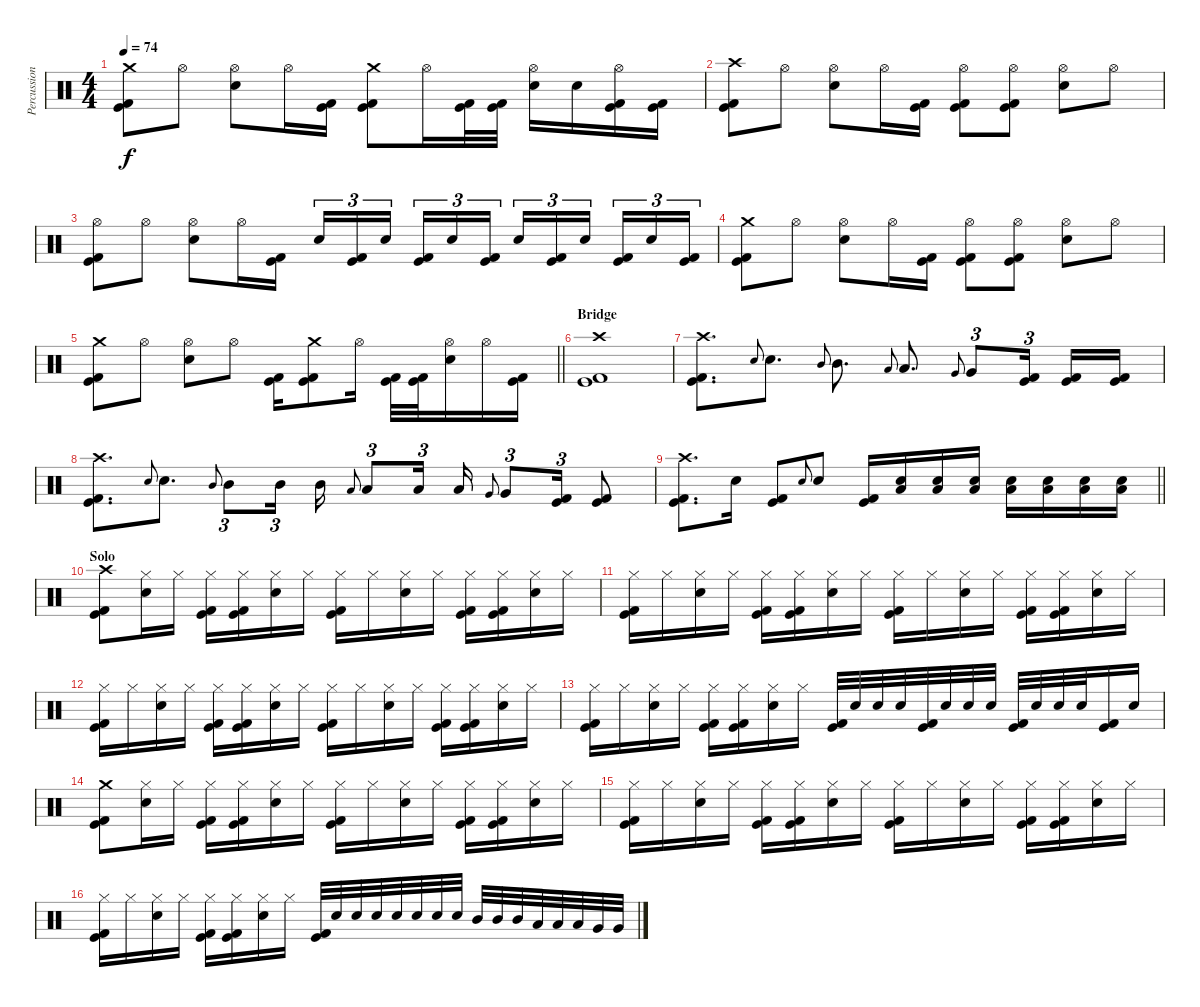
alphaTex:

\track ("Percussion" "Percussion") {instrument percussion}
\staff {score}
\articulation defaults
\ts (4 4)
\tempo 74
\clef neutral
\ks c
("Crash medium (hit)" "Kick (hit)" "Kick (hit) 2").8{dy f} "Hi-Hat (open)".8 ("Hi-Hat (open)" "Electric Snare (hit)").8 "Hi-Hat (open)".16 ("Kick (hit)" "Kick (hit) 2").16 ("Crash medium (hit)" "Kick (hit)" "Kick (hit) 2").8 "Hi-Hat (open)".16 ("Kick (hit)" "Kick (hit) 2").32 ("Kick (hit)" "Kick (hit) 2").32 ("Hi-Hat (open)" "Electric Snare (hit)").16 "Electric Snare (hit)".16 ("Hi-Hat (open)" "Kick (hit)" "Kick (hit) 2").16 ("Kick (hit)" "Kick (hit) 2").16 |
("Crash high (hit)" "Kick (hit)" "Kick (hit) 2").8 "Hi-Hat (open)".8 ("Hi-Hat (open)" "Electric Snare (hit)").8 "Hi-Hat (open)".16 ("Kick (hit)" "Kick (hit) 2").16 ("Hi-Hat (open)" "Kick (hit)" "Kick (hit) 2").8 ("Hi-Hat (open)" "Kick (hit)" "Kick (hit) 2").8 ("Hi-Hat (open)" "Electric Snare (hit)").8 "Hi-Hat (open)".8 |
("Hi-Hat (open)" "Kick (hit)" "Kick (hit) 2").8 "Hi-Hat (open)".8 ("Hi-Hat (open)" "Electric Snare (hit)").8 "Hi-Hat (open)".16 ("Kick (hit)" "Kick (hit) 2").16 "Electric Snare (hit)".16{tu (3 2)} ("Kick (hit)" "Kick (hit) 2").16{tu (3 2)} "Electric Snare (hit)".16{tu (3 2) beam splitsecondary} ("Kick (hit)" "Kick (hit) 2").16{tu (3 2)} "Electric Snare (hit)".16{tu (3 2)} ("Kick (hit)" "Kick (hit) 2").16{tu (3 2)} "Electric Snare (hit)".16{tu (3 2)} ("Kick (hit)" "Kick (hit) 2").16{tu (3 2)} "Electric Snare (hit)".16{tu (3 2) beam splitsecondary} ("Kick (hit)" "Kick (hit) 2").16{tu (3 2)} "Electric Snare (hit)".16{tu (3 2)} ("Kick (hit)" "Kick (hit) 2").16{tu (3 2)} |
("Crash medium (hit)" "Kick (hit)" "Kick (hit) 2").8 "Hi-Hat (open)".8 ("Hi-Hat (open)" "Electric Snare (hit)").8 "Hi-Hat (open)".16 ("Kick (hit)" "Kick (hit) 2").16 ("Hi-Hat (open)" "Kick (hit)" "Kick (hit) 2").8 ("Hi-Hat (open)" "Kick (hit)" "Kick (hit) 2").8 ("Hi-Hat (open)" "Electric Snare (hit)").8 "Hi-Hat (open)".8 |
\barLineRight lightlight
("Crash medium (hit)" "Kick (hit)" "Kick (hit) 2").8 "Hi-Hat (open)".8 ("Hi-Hat (open)" "Electric Snare (hit)").8 "Hi-Hat (open)".8 ("Kick (hit)" "Kick (hit) 2").16 ("Crash medium (hit)" "Kick (hit)" "Kick (hit) 2").8 "Hi-Hat (open)".16 ("Kick (hit)" "Kick (hit) 2").32 ("Kick (hit)" "Kick (hit) 2").32 ("Hi-Hat (open)" "Electric Snare (hit)").16 "Hi-Hat (open)".16 ("Kick (hit)" "Kick (hit) 2").16 |
\section ("" "Bridge")
("Crash high (hit)" "Kick (hit)" "Kick (hit) 2").1 |
("Crash high (hit)" "Kick (hit)" "Kick (hit) 2").8{d} "Electric Snare (hit)".8{gr onbeat} "Electric Snare (hit)".8{d} "Mid Tom (hit)".8{gr onbeat} "Mid Tom (hit)".8{d} "Low Tom (hit)".8{gr onbeat} "Low Tom (hit)".8{d} "Very Low Tom (hit)".8{gr onbeat} "Very Low Tom (hit)".8{tu (3 2)} ("Kick (hit)" "Kick (hit) 2").16{tu (3 2) beam splitsecondary} ("Kick (hit)" "Kick (hit) 2").16 ("Kick (hit)" "Kick (hit) 2").16 |
("Crash high (hit)" "Kick (hit)" "Kick (hit) 2").8{d} "Electric Snare (hit)".8{gr onbeat} "Electric Snare (hit)".8{d} "Mid Tom (hit)".8{gr onbeat} "Mid Tom (hit)".8{tu (3 2)} "Mid Tom (hit)".16{tu (3 2)} "Mid Tom (hit)".16 "Low Tom (hit)".8{gr onbeat} "Low Tom (hit)".8{tu (3 2)} "Low Tom (hit)".16{tu (3 2)} "Low Tom (hit)".16 "Very Low Tom (hit)".8{gr onbeat} "Very Low Tom (hit)".8{tu (3 2)} ("Kick (hit)" "Kick (hit) 2").16{tu (3 2)} ("Kick (hit)" "Kick (hit) 2").8 |
\barLineRight lightlight
("Crash high (hit)" "Kick (hit)" "Kick (hit) 2").8{d} "Electric Snare (hit)".16 ("Kick (hit)" "Kick (hit) 2").8 "Electric Snare (hit)".8{gr onbeat} "Electric Snare (hit)".8 ("Kick (hit)" "Kick (hit) 2").16 ("Electric Snare (hit)" "Low Floor Tom (hit)").16 ("Electric Snare (hit)" "Low Floor Tom (hit)").16 ("Electric Snare (hit)" "Low Floor Tom (hit)").16 ("Electric Snare (hit)" "Low Floor Tom (hit)").16 ("Electric Snare (hit)" "Low Floor Tom (hit)").16 ("Electric Snare (hit)" "Low Floor Tom (hit)").16 ("Electric Snare (hit)" "Low Floor Tom (hit)").16 |
\section ("" "Solo")
("Crash high (hit)" "Kick (hit)" "Kick (hit) 2").8 ("Hi-Hat (closed)" "Electric Snare (hit)").16 "Hi-Hat (closed)".16 ("Hi-Hat (closed)" "Kick (hit)" "Kick (hit) 2").16 ("Hi-Hat (closed)" "Kick (hit)" "Kick (hit) 2").16 ("Hi-Hat (closed)" "Electric Snare (hit)").16 "Hi-Hat (closed)".16 ("Hi-Hat (closed)" "Kick (hit)" "Kick (hit) 2").16 "Hi-Hat (closed)".16 ("Hi-Hat (closed)" "Electric Snare (hit)").16 "Hi-Hat (closed)".16 ("Hi-Hat (closed)" "Kick (hit)" "Kick (hit) 2").16 ("Hi-Hat (closed)" "Kick (hit)" "Kick (hit) 2").16 ("Hi-Hat (closed)" "Electric Snare (hit)").16 "Hi-Hat (closed)".16 |
("Hi-Hat (closed)" "Kick (hit)" "Kick (hit) 2").16 "Hi-Hat (closed)".16 ("Hi-Hat (closed)" "Electric Snare (hit)").16 "Hi-Hat (closed)".16 ("Hi-Hat (closed)" "Kick (hit)" "Kick (hit) 2").16 ("Hi-Hat (closed)" "Kick (hit)" "Kick (hit) 2").16 ("Hi-Hat (closed)" "Electric Snare (hit)").16 "Hi-Hat (closed)".16 ("Hi-Hat (closed)" "Kick (hit)" "Kick (hit) 2").16 "Hi-Hat (closed)".16 ("Hi-Hat (closed)" "Electric Snare (hit)").16 "Hi-Hat (closed)".16 ("Hi-Hat (closed)" "Kick (hit)" "Kick (hit) 2").16 ("Hi-Hat (closed)" "Kick (hit)" "Kick (hit) 2").16 ("Hi-Hat (closed)" "Electric Snare (hit)").16 "Hi-Hat (closed)".16 |
("Hi-Hat (closed)" "Kick (hit)" "Kick (hit) 2").16 "Hi-Hat (closed)".16 ("Hi-Hat (closed)" "Electric Snare (hit)").16 "Hi-Hat (closed)".16 ("Hi-Hat (closed)" "Kick (hit)" "Kick (hit) 2").16 ("Hi-Hat (closed)" "Kick (hit)" "Kick (hit) 2").16 ("Hi-Hat (closed)" "Electric Snare (hit)").16 "Hi-Hat (closed)".16 ("Hi-Hat (closed)" "Kick (hit)" "Kick (hit) 2").16 "Hi-Hat (closed)".16 ("Hi-Hat (closed)" "Electric Snare (hit)").16 "Hi-Hat (closed)".16 ("Hi-Hat (closed)" "Kick (hit)" "Kick (hit) 2").16 ("Hi-Hat (closed)" "Kick (hit)" "Kick (hit) 2").16 ("Hi-Hat (closed)" "Electric Snare (hit)").16 "Hi-Hat (closed)".16 |
("Hi-Hat (closed)" "Kick (hit)" "Kick (hit) 2").16 "Hi-Hat (closed)".16 ("Hi-Hat (closed)" "Electric Snare (hit)").16 "Hi-Hat (closed)".16 ("Hi-Hat (closed)" "Kick (hit)" "Kick (hit) 2").16 ("Hi-Hat (closed)" "Kick (hit)" "Kick (hit) 2").16 ("Hi-Hat (closed)" "Electric Snare (hit)").16 "Hi-Hat (closed)".16 ("Kick (hit)" "Kick (hit) 2").32 "Electric Snare (hit)".32 "Electric Snare (hit)".32 "Electric Snare (hit)".32 ("Kick (hit)" "Kick (hit) 2").32 "Electric Snare (hit)".32 "Electric Snare (hit)".32 "Electric Snare (hit)".32 ("Kick (hit)" "Kick (hit) 2").32 "Electric Snare (hit)".32 "Electric Snare (hit)".32 "Electric Snare (hit)".32 ("Kick (hit)" "Kick (hit) 2").16 "Electric Snare (hit)".16 |
("Crash medium (hit)" "Kick (hit)" "Kick (hit) 2").8 ("Hi-Hat (closed)" "Electric Snare (hit)").16 "Hi-Hat (closed)".16 ("Hi-Hat (closed)" "Kick (hit)" "Kick (hit) 2").16 ("Hi-Hat (closed)" "Kick (hit)" "Kick (hit) 2").16 ("Hi-Hat (closed)" "Electric Snare (hit)").16 "Hi-Hat (closed)".16 ("Hi-Hat (closed)" "Kick (hit)" "Kick (hit) 2").16 "Hi-Hat (closed)".16 ("Hi-Hat (closed)" "Electric Snare (hit)").16 "Hi-Hat (closed)".16 ("Hi-Hat (closed)" "Kick (hit)" "Kick (hit) 2").16 ("Hi-Hat (closed)" "Kick (hit)" "Kick (hit) 2").16 ("Hi-Hat (closed)" "Electric Snare (hit)").16 "Hi-Hat (closed)".16 |
("Hi-Hat (closed)" "Kick (hit)" "Kick (hit) 2").16 "Hi-Hat (closed)".16 ("Hi-Hat (closed)" "Electric Snare (hit)").16 "Hi-Hat (closed)".16 ("Hi-Hat (closed)" "Kick (hit)" "Kick (hit) 2").16 ("Hi-Hat (closed)" "Kick (hit)" "Kick (hit) 2").16 ("Hi-Hat (closed)" "Electric Snare (hit)").16 "Hi-Hat (closed)".16 ("Hi-Hat (closed)" "Kick (hit)" "Kick (hit) 2").16 "Hi-Hat (closed)".16 ("Hi-Hat (closed)" "Electric Snare (hit)").16 "Hi-Hat (closed)".16 ("Hi-Hat (closed)" "Kick (hit)" "Kick (hit) 2").16 ("Hi-Hat (closed)" "Kick (hit)" "Kick (hit) 2").16 ("Hi-Hat (closed)" "Electric Snare (hit)").16 "Hi-Hat (closed)".16 |
("Hi-Hat (closed)" "Kick (hit)" "Kick (hit) 2").16 "Hi-Hat (closed)".16 ("Hi-Hat (closed)" "Electric Snare (hit)").16 "Hi-Hat (closed)".16 ("Hi-Hat (closed)" "Kick (hit)" "Kick (hit) 2").16 ("Hi-Hat (closed)" "Kick (hit)" "Kick (hit) 2").16 ("Hi-Hat (closed)" "Electric Snare (hit)").16 "Hi-Hat (closed)".16 ("Kick (hit)" "Kick (hit) 2").32 "Electric Snare (hit)".32 "Electric Snare (hit)".32 "Electric Snare (hit)".32 "Electric Snare (hit)".32 "Electric Snare (hit)".32 "Electric Snare (hit)".32 "Electric Snare (hit)".32 "Mid Tom (hit)".32 "Mid Tom (hit)".32 "Mid Tom (hit)".32 "Low Tom (hit)".32 "Low Tom (hit)".32 "Low Tom (hit)".32 "Very Low Tom (hit)".32 "Very Low Tom (hit)".32
